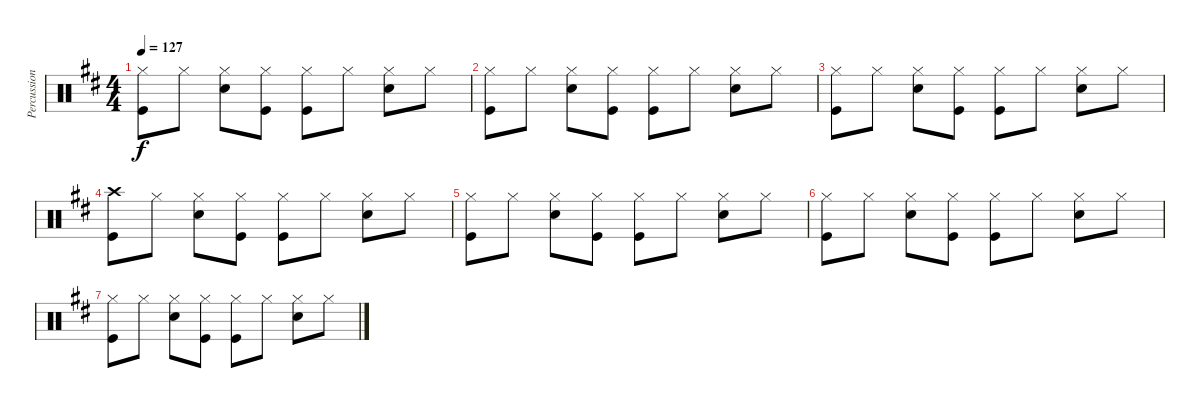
\track ("Percussion" "Percussion") {instrument percussion}
\staff {score}
\articulation defaults
\ts (4 4)
\tempo 127
\clef neutral
\ks d
("Hi-Hat (closed)" "Kick (hit)").8{dy f} "Hi-Hat (closed)".8 ("Hi-Hat (closed)" "Snare (hit) 2").8 ("Hi-Hat (closed)" "Kick (hit)").8 ("Hi-Hat (closed)" "Kick (hit)").8 "Hi-Hat (closed)".8 ("Hi-Hat (closed)" "Snare (hit) 2").8 "Hi-Hat (closed)".8 |
("Hi-Hat (closed)" "Kick (hit)").8 "Hi-Hat (closed)".8 ("Hi-Hat (closed)" "Snare (hit) 2").8 ("Hi-Hat (closed)" "Kick (hit)").8 ("Hi-Hat (closed)" "Kick (hit)").8 "Hi-Hat (closed)".8 ("Hi-Hat (closed)" "Snare (hit) 2").8 "Hi-Hat (closed)".8 |
("Hi-Hat (closed)" "Kick (hit)").8 "Hi-Hat (closed)".8 ("Hi-Hat (closed)" "Snare (hit) 2").8 ("Hi-Hat (closed)" "Kick (hit)").8 ("Hi-Hat (closed)" "Kick (hit)").8 "Hi-Hat (closed)".8 ("Hi-Hat (closed)" "Snare (hit) 2").8 "Hi-Hat (closed)".8 |
("Crash high (hit)" "Kick (hit)").8 "Hi-Hat (closed)".8 ("Hi-Hat (closed)" "Snare (hit) 2").8 ("Hi-Hat (closed)" "Kick (hit)").8 ("Hi-Hat (closed)" "Kick (hit)").8 "Hi-Hat (closed)".8 ("Hi-Hat (closed)" "Snare (hit) 2").8 "Hi-Hat (closed)".8 |
("Hi-Hat (closed)" "Kick (hit)").8 "Hi-Hat (closed)".8 ("Hi-Hat (closed)" "Snare (hit) 2").8 ("Hi-Hat (closed)" "Kick (hit)").8 ("Hi-Hat (closed)" "Kick (hit)").8 "Hi-Hat (closed)".8 ("Hi-Hat (closed)" "Snare (hit) 2").8 "Hi-Hat (closed)".8 |
("Hi-Hat (closed)" "Kick (hit)").8 "Hi-Hat (closed)".8 ("Hi-Hat (closed)" "Snare (hit) 2").8 ("Hi-Hat (closed)" "Kick (hit)").8 ("Hi-Hat (closed)" "Kick (hit)").8 "Hi-Hat (closed)".8 ("Hi-Hat (closed)" "Snare (hit) 2").8 "Hi-Hat (closed)".8 |
("Hi-Hat (closed)" "Kick (hit)").8 "Hi-Hat (closed)".8 ("Hi-Hat (closed)" "Snare (hit) 2").8 ("Hi-Hat (closed)" "Kick (hit)").8 ("Hi-Hat (closed)" "Kick (hit)").8 "Hi-Hat (closed)".8 ("Hi-Hat (closed)" "Snare (hit) 2").8 "Hi-Hat (closed)".8
